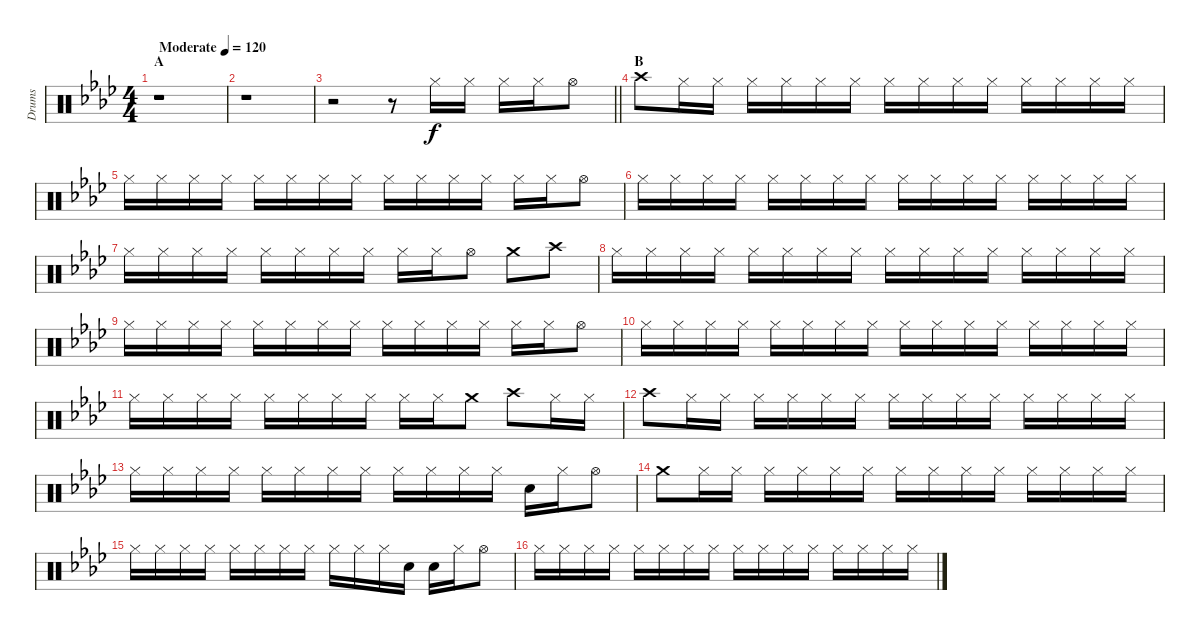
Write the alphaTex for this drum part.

\track ("Drums" "Drums") {instrument percussion}
\staff {score}
\articulation defaults
\ts (4 4)
\section ("" "A")
\tempo (120 "Moderate")
\clef neutral
\ks ab
r.1{dy f} |
r.1 |
\barLineRight lightlight
r.2 r.8 "Hi-Hat (closed)".16 "Hi-Hat (closed)".16 "Hi-Hat (closed)".16 "Hi-Hat (closed)".16 "Hi-Hat (open)".8 |
\section ("" "B")
"Crash high (hit)".8 "Hi-Hat (closed)".16 "Hi-Hat (closed)".16 "Hi-Hat (closed)".16 "Hi-Hat (closed)".16 "Hi-Hat (closed)".16 "Hi-Hat (closed)".16 "Hi-Hat (closed)".16 "Hi-Hat (closed)".16 "Hi-Hat (closed)".16 "Hi-Hat (closed)".16 "Hi-Hat (closed)".16 "Hi-Hat (closed)".16 "Hi-Hat (closed)".16 "Hi-Hat (closed)".16 |
"Hi-Hat (closed)".16 "Hi-Hat (closed)".16 "Hi-Hat (closed)".16 "Hi-Hat (closed)".16 "Hi-Hat (closed)".16 "Hi-Hat (closed)".16 "Hi-Hat (closed)".16 "Hi-Hat (closed)".16 "Hi-Hat (closed)".16 "Hi-Hat (closed)".16 "Hi-Hat (closed)".16 "Hi-Hat (closed)".16 "Hi-Hat (closed)".16 "Hi-Hat (closed)".16 "Hi-Hat (open)".8 |
"Hi-Hat (closed)".16 "Hi-Hat (closed)".16 "Hi-Hat (closed)".16 "Hi-Hat (closed)".16 "Hi-Hat (closed)".16 "Hi-Hat (closed)".16 "Hi-Hat (closed)".16 "Hi-Hat (closed)".16 "Hi-Hat (closed)".16 "Hi-Hat (closed)".16 "Hi-Hat (closed)".16 "Hi-Hat (closed)".16 "Hi-Hat (closed)".16 "Hi-Hat (closed)".16 "Hi-Hat (closed)".16 "Hi-Hat (closed)".16 |
"Hi-Hat (closed)".16 "Hi-Hat (closed)".16 "Hi-Hat (closed)".16 "Hi-Hat (closed)".16 "Hi-Hat (closed)".16 "Hi-Hat (closed)".16 "Hi-Hat (closed)".16 "Hi-Hat (closed)".16 "Hi-Hat (closed)".16 "Hi-Hat (closed)".16 "Hi-Hat (open)".8 "Crash medium (hit)".8 "Crash high (hit)".8 |
"Hi-Hat (closed)".16 "Hi-Hat (closed)".16 "Hi-Hat (closed)".16 "Hi-Hat (closed)".16 "Hi-Hat (closed)".16 "Hi-Hat (closed)".16 "Hi-Hat (closed)".16 "Hi-Hat (closed)".16 "Hi-Hat (closed)".16 "Hi-Hat (closed)".16 "Hi-Hat (closed)".16 "Hi-Hat (closed)".16 "Hi-Hat (closed)".16 "Hi-Hat (closed)".16 "Hi-Hat (closed)".16 "Hi-Hat (closed)".16 |
"Hi-Hat (closed)".16 "Hi-Hat (closed)".16 "Hi-Hat (closed)".16 "Hi-Hat (closed)".16 "Hi-Hat (closed)".16 "Hi-Hat (closed)".16 "Hi-Hat (closed)".16 "Hi-Hat (closed)".16 "Hi-Hat (closed)".16 "Hi-Hat (closed)".16 "Hi-Hat (closed)".16 "Hi-Hat (closed)".16 "Hi-Hat (closed)".16 "Hi-Hat (closed)".16 "Hi-Hat (open)".8 |
"Hi-Hat (closed)".16 "Hi-Hat (closed)".16 "Hi-Hat (closed)".16 "Hi-Hat (closed)".16 "Hi-Hat (closed)".16 "Hi-Hat (closed)".16 "Hi-Hat (closed)".16 "Hi-Hat (closed)".16 "Hi-Hat (closed)".16 "Hi-Hat (closed)".16 "Hi-Hat (closed)".16 "Hi-Hat (closed)".16 "Hi-Hat (closed)".16 "Hi-Hat (closed)".16 "Hi-Hat (closed)".16 "Hi-Hat (closed)".16 |
"Hi-Hat (closed)".16 "Hi-Hat (closed)".16 "Hi-Hat (closed)".16 "Hi-Hat (closed)".16 "Hi-Hat (closed)".16 "Hi-Hat (closed)".16 "Hi-Hat (closed)".16 "Hi-Hat (closed)".16 "Hi-Hat (closed)".16 "Hi-Hat (closed)".16 "Crash medium (hit)".8 "Crash high (hit)".8 "Hi-Hat (closed)".16 "Hi-Hat (closed)".16 |
"Crash high (hit)".8 "Hi-Hat (closed)".16 "Hi-Hat (closed)".16 "Hi-Hat (closed)".16 "Hi-Hat (closed)".16 "Hi-Hat (closed)".16 "Hi-Hat (closed)".16 "Hi-Hat (closed)".16 "Hi-Hat (closed)".16 "Hi-Hat (closed)".16 "Hi-Hat (closed)".16 "Hi-Hat (closed)".16 "Hi-Hat (closed)".16 "Hi-Hat (closed)".16 "Hi-Hat (closed)".16 |
"Hi-Hat (closed)".16 "Hi-Hat (closed)".16 "Hi-Hat (closed)".16 "Hi-Hat (closed)".16 "Hi-Hat (closed)".16 "Hi-Hat (closed)".16 "Hi-Hat (closed)".16 "Hi-Hat (closed)".16 "Hi-Hat (closed)".16 "Hi-Hat (closed)".16 "Hi-Hat (closed)".16 "Hi-Hat (closed)".16 "Snare (hit) 2".16 "Hi-Hat (closed)".16 "Hi-Hat (open)".8 |
"Crash medium (hit)".8 "Hi-Hat (closed)".16 "Hi-Hat (closed)".16 "Hi-Hat (closed)".16 "Hi-Hat (closed)".16 "Hi-Hat (closed)".16 "Hi-Hat (closed)".16 "Hi-Hat (closed)".16 "Hi-Hat (closed)".16 "Hi-Hat (closed)".16 "Hi-Hat (closed)".16 "Hi-Hat (closed)".16 "Hi-Hat (closed)".16 "Hi-Hat (closed)".16 "Hi-Hat (closed)".16 |
"Hi-Hat (closed)".16 "Hi-Hat (closed)".16 "Hi-Hat (closed)".16 "Hi-Hat (closed)".16 "Hi-Hat (closed)".16 "Hi-Hat (closed)".16 "Hi-Hat (closed)".16 "Hi-Hat (closed)".16 "Hi-Hat (closed)".16 "Hi-Hat (closed)".16 "Hi-Hat (closed)".16 "Snare (hit) 2".16 "Snare (hit) 2".16 "Hi-Hat (closed)".16 "Hi-Hat (open)".8 |
"Hi-Hat (closed)".16 "Hi-Hat (closed)".16 "Hi-Hat (closed)".16 "Hi-Hat (closed)".16 "Hi-Hat (closed)".16 "Hi-Hat (closed)".16 "Hi-Hat (closed)".16 "Hi-Hat (closed)".16 "Hi-Hat (closed)".16 "Hi-Hat (closed)".16 "Hi-Hat (closed)".16 "Hi-Hat (closed)".16 "Hi-Hat (closed)".16 "Hi-Hat (closed)".16 "Hi-Hat (closed)".16 "Hi-Hat (closed)".16
